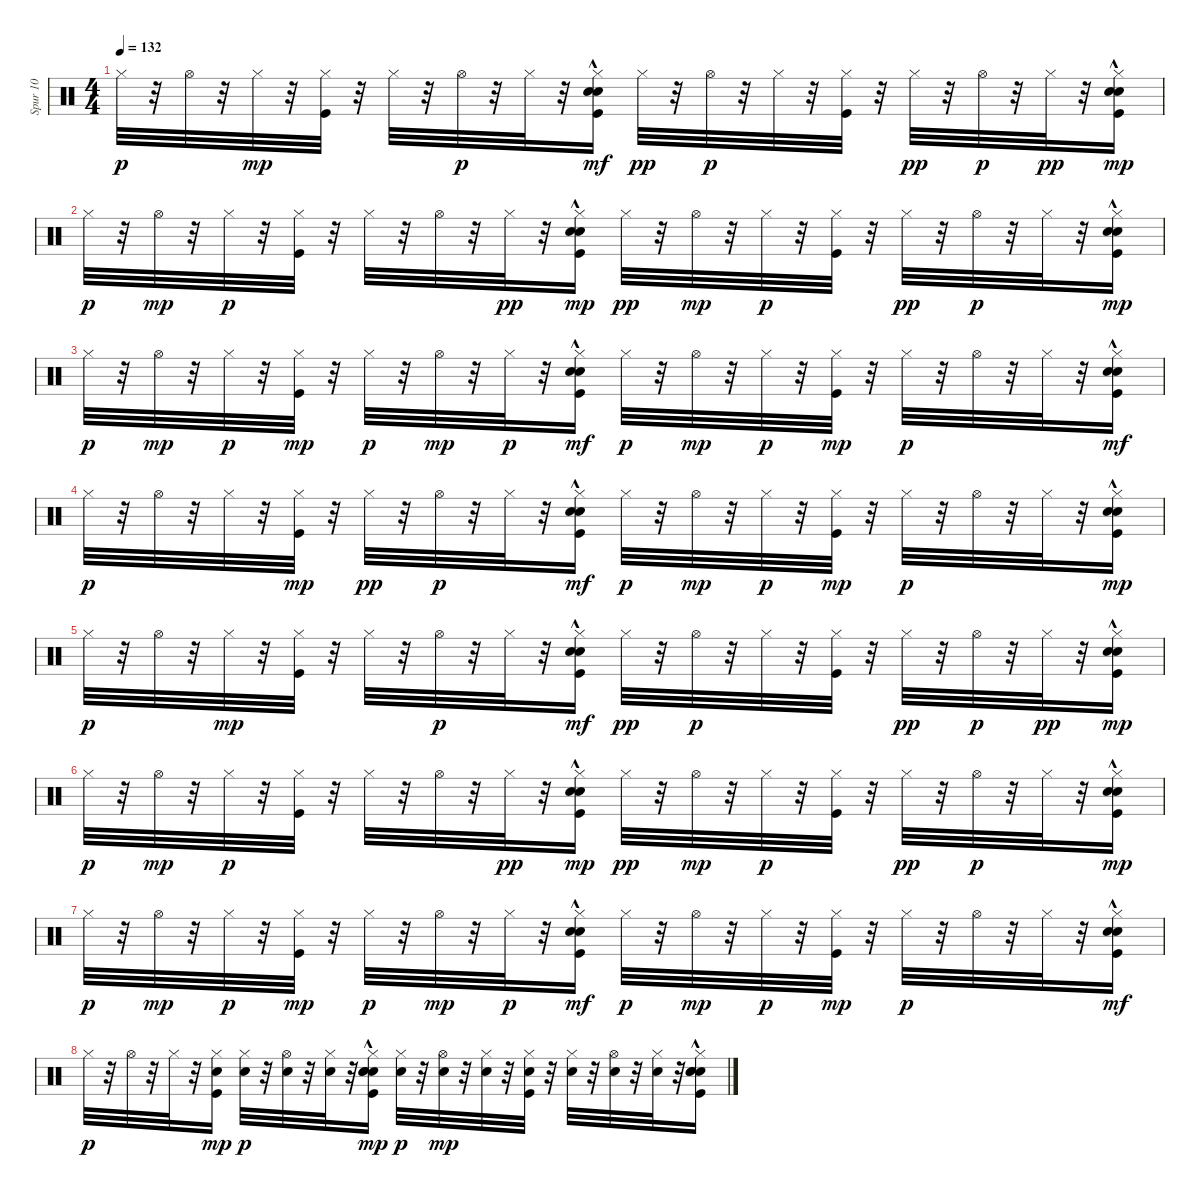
\track ("Spur 10" "Spur 10") {instrument percussion}
\staff {score}
\articulation defaults
\ts (4 4)
\tempo 132
\clef neutral
\ks c "Hi-Hat (closed)".32{dy p}
r.32 "Hi-Hat (open)".32 r.32 "Hi-Hat (closed)".32{dy mp} r.32 ("Kick (hit)" "Hi-Hat (closed)").32 r.32 "Hi-Hat (closed)".32 r.32 "Hi-Hat (open)".32{dy p} r.32 "Hi-Hat (closed)".32 r.32 ("Hi-Hat (closed)" "Snare (hit) 2" "Kick (hit)" "Hand Clap (hit)"{hac}).16{dy mf} "Hi-Hat (closed)".32{dy pp} r.32 "Hi-Hat (open)".32{dy p} r.32 "Hi-Hat (closed)".32 r.32 ("Hi-Hat (closed)" "Kick (hit)").32 r.32 "Hi-Hat (closed)".32{dy pp} r.32 "Hi-Hat (open)".32{dy p} r.32 "Hi-Hat (closed)".32{dy pp} r.32 ("Hi-Hat (closed)" "Kick (hit)" "Snare (hit) 2" "Hand Clap (hit)"{hac}).16{dy mp} |
"Hi-Hat (closed)".32{dy p} r.32 "Hi-Hat (open)".32{dy mp} r.32 "Hi-Hat (closed)".32{dy p} r.32 ("Hi-Hat (closed)" "Kick (hit)").32 r.32 "Hi-Hat (closed)".32 r.32 "Hi-Hat (open)".32 r.32 "Hi-Hat (closed)".32{dy pp} r.32 ("Hi-Hat (closed)" "Kick (hit)" "Snare (hit) 2" "Hand Clap (hit)"{hac}).16{dy mp} "Hi-Hat (closed)".32{dy pp} r.32 "Hi-Hat (open)".32{dy mp} r.32 "Hi-Hat (closed)".32{dy p} r.32 ("Hi-Hat (closed)" "Kick (hit)").32 r.32 "Hi-Hat (closed)".32{dy pp} r.32 "Hi-Hat (open)".32{dy p} r.32 "Hi-Hat (closed)".32 r.32 ("Hi-Hat (closed)" "Kick (hit)" "Snare (hit) 2" "Hand Clap (hit)"{hac}).16{dy mp} |
"Hi-Hat (closed)".32{dy p} r.32 "Hi-Hat (open)".32{dy mp} r.32 "Hi-Hat (closed)".32{dy p} r.32 ("Hi-Hat (closed)" "Kick (hit)").32{dy mp} r.32 "Hi-Hat (closed)".32{dy p} r.32 "Hi-Hat (open)".32{dy mp} r.32 "Hi-Hat (closed)".32{dy p} r.32 ("Hi-Hat (closed)" "Snare (hit) 2" "Kick (hit)" "Hand Clap (hit)"{hac}).16{dy mf} "Hi-Hat (closed)".32{dy p} r.32 "Hi-Hat (open)".32{dy mp} r.32 "Hi-Hat (closed)".32{dy p} r.32 ("Hi-Hat (closed)" "Kick (hit)").32{dy mp} r.32 "Hi-Hat (closed)".32{dy p} r.32 "Hi-Hat (open)".32 r.32 "Hi-Hat (closed)".32 r.32 ("Hi-Hat (closed)" "Snare (hit) 2" "Kick (hit)" "Hand Clap (hit)"{hac}).16{dy mf} |
"Hi-Hat (closed)".32{dy p} r.32 "Hi-Hat (open)".32 r.32 "Hi-Hat (closed)".32 r.32 ("Hi-Hat (closed)" "Kick (hit)").32{dy mp} r.32 "Hi-Hat (closed)".32{dy pp} r.32 "Hi-Hat (open)".32{dy p} r.32 "Hi-Hat (closed)".32 r.32 ("Hi-Hat (closed)" "Snare (hit) 2" "Kick (hit)" "Hand Clap (hit)"{hac}).16{dy mf} "Hi-Hat (closed)".32{dy p} r.32 "Hi-Hat (open)".32{dy mp} r.32 "Hi-Hat (closed)".32{dy p} r.32 ("Hi-Hat (closed)" "Kick (hit)").32{dy mp} r.32 "Hi-Hat (closed)".32{dy p} r.32 "Hi-Hat (open)".32 r.32 "Hi-Hat (closed)".32 r.32 ("Hi-Hat (closed)" "Kick (hit)" "Snare (hit) 2" "Hand Clap (hit)"{hac}).16{dy mp} |
"Hi-Hat (closed)".32{dy p} r.32 "Hi-Hat (open)".32 r.32 "Hi-Hat (closed)".32{dy mp} r.32 ("Kick (hit)" "Hi-Hat (closed)").32 r.32 "Hi-Hat (closed)".32 r.32 "Hi-Hat (open)".32{dy p} r.32 "Hi-Hat (closed)".32 r.32 ("Hi-Hat (closed)" "Snare (hit) 2" "Kick (hit)" "Hand Clap (hit)"{hac}).16{dy mf} "Hi-Hat (closed)".32{dy pp} r.32 "Hi-Hat (open)".32{dy p} r.32 "Hi-Hat (closed)".32 r.32 ("Hi-Hat (closed)" "Kick (hit)").32 r.32 "Hi-Hat (closed)".32{dy pp} r.32 "Hi-Hat (open)".32{dy p} r.32 "Hi-Hat (closed)".32{dy pp} r.32 ("Hi-Hat (closed)" "Kick (hit)" "Snare (hit) 2" "Hand Clap (hit)"{hac}).16{dy mp} |
"Hi-Hat (closed)".32{dy p} r.32 "Hi-Hat (open)".32{dy mp} r.32 "Hi-Hat (closed)".32{dy p} r.32 ("Hi-Hat (closed)" "Kick (hit)").32 r.32 "Hi-Hat (closed)".32 r.32 "Hi-Hat (open)".32 r.32 "Hi-Hat (closed)".32{dy pp} r.32 ("Hi-Hat (closed)" "Kick (hit)" "Snare (hit) 2" "Hand Clap (hit)"{hac}).16{dy mp} "Hi-Hat (closed)".32{dy pp} r.32 "Hi-Hat (open)".32{dy mp} r.32 "Hi-Hat (closed)".32{dy p} r.32 ("Hi-Hat (closed)" "Kick (hit)").32 r.32 "Hi-Hat (closed)".32{dy pp} r.32 "Hi-Hat (open)".32{dy p} r.32 "Hi-Hat (closed)".32 r.32 ("Hi-Hat (closed)" "Kick (hit)" "Snare (hit) 2" "Hand Clap (hit)"{hac}).16{dy mp} |
"Hi-Hat (closed)".32{dy p} r.32 "Hi-Hat (open)".32{dy mp} r.32 "Hi-Hat (closed)".32{dy p} r.32 ("Hi-Hat (closed)" "Kick (hit)").32{dy mp} r.32 "Hi-Hat (closed)".32{dy p} r.32 "Hi-Hat (open)".32{dy mp} r.32 "Hi-Hat (closed)".32{dy p} r.32 ("Hi-Hat (closed)" "Snare (hit) 2" "Kick (hit)" "Hand Clap (hit)"{hac}).16{dy mf} "Hi-Hat (closed)".32{dy p} r.32 "Hi-Hat (open)".32{dy mp} r.32 "Hi-Hat (closed)".32{dy p} r.32 ("Hi-Hat (closed)" "Kick (hit)").32{dy mp} r.32 "Hi-Hat (closed)".32{dy p} r.32 "Hi-Hat (open)".32 r.32 "Hi-Hat (closed)".32 r.32 ("Hi-Hat (closed)" "Snare (hit) 2" "Kick (hit)" "Hand Clap (hit)"{hac}).16{dy mf} |
"Hi-Hat (closed)".32{dy p} r.32 "Hi-Hat (open)".32 r.32 "Hi-Hat (closed)".32 r.32 ("Hi-Hat (closed)" "Kick (hit)" "Snare (hit) 2").16{dy mp} ("Hi-Hat (closed)" "Snare (hit) 2").32{dy p} r.32 ("Hi-Hat (open)" "Snare (hit) 2").32 r.32 ("Hi-Hat (closed)" "Snare (hit) 2").32 r.32 ("Hi-Hat (closed)" "Snare (hit) 2" "Kick (hit)" "Snare (hit) 2" "Hand Clap (hit)"{hac}).16{dy mp} ("Hi-Hat (closed)" "Snare (hit) 2").32{dy p} r.32 ("Hi-Hat (open)" "Snare (hit) 2").32{dy mp} r.32 ("Hi-Hat (closed)" "Snare (hit) 2").32 r.32 ("Hi-Hat (closed)" "Kick (hit)" "Snare (hit) 2").32 r.32 ("Hi-Hat (closed)" "Snare (hit) 2").32 r.32 ("Hi-Hat (open)" "Snare (hit) 2").32 r.32 ("Hi-Hat (closed)" "Snare (hit) 2").32 r.32 ("Hi-Hat (closed)" "Kick (hit)" "Snare (hit) 2" "Snare (hit) 2" "Hand Clap (hit)"{hac}).16
